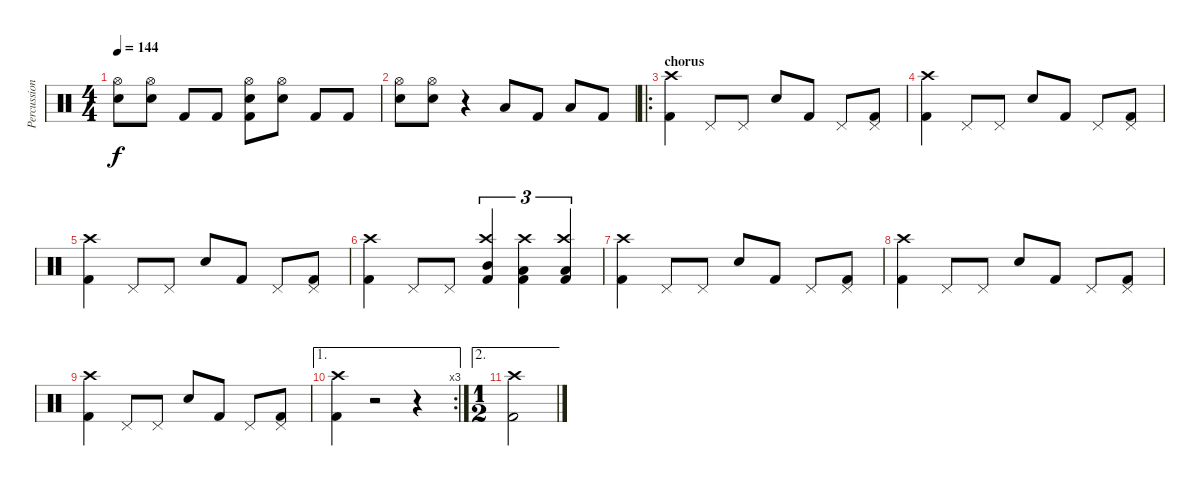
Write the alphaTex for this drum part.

\track ("Percussion" "Percussion") {instrument percussion}
\staff {score}
\articulation defaults
\ts (4 4)
\tempo 144
\clef neutral
\ks c
("Hi-Hat (open)" "Electric Snare (hit)").8{dy f} ("Hi-Hat (open)" "Electric Snare (hit)").8 "Kick (hit) 2".8 "Kick (hit) 2".8 ("Hi-Hat (open)" "Electric Snare (hit)" "Kick (hit) 2").8 ("Hi-Hat (open)" "Electric Snare (hit)").8 "Kick (hit) 2".8 "Kick (hit) 2".8 |
("Hi-Hat (open)" "Electric Snare (hit)").8 ("Hi-Hat (open)" "Electric Snare (hit)").8 r.4 "Low Tom (hit)".8 "Kick (hit) 2".8 "Low Tom (hit)".8 "Kick (hit) 2".8 |
\ro
\section ("" "chorus")
("Crash high (hit)" "Kick (hit) 2").4 "Pedal Hi-Hat (hit)".8 "Pedal Hi-Hat (hit)".8 "Electric Snare (hit)".8 "Kick (hit) 2".8 "Pedal Hi-Hat (hit)".8 ("Pedal Hi-Hat (hit)" "Kick (hit) 2").8 |
("Crash high (hit)" "Kick (hit) 2").4 "Pedal Hi-Hat (hit)".8 "Pedal Hi-Hat (hit)".8 "Electric Snare (hit)".8 "Kick (hit) 2".8 "Pedal Hi-Hat (hit)".8 ("Pedal Hi-Hat (hit)" "Kick (hit) 2").8 |
("Crash high (hit)" "Kick (hit) 2").4 "Pedal Hi-Hat (hit)".8 "Pedal Hi-Hat (hit)".8 "Electric Snare (hit)".8 "Kick (hit) 2".8 "Pedal Hi-Hat (hit)".8 ("Pedal Hi-Hat (hit)" "Kick (hit) 2").8 |
("Crash high (hit)" "Kick (hit) 2").4 "Pedal Hi-Hat (hit)".8 "Pedal Hi-Hat (hit)".8 ("Crash high (hit)" "Mid Tom (hit)" "Kick (hit) 2").4{tu (3 2)} ("Crash high (hit)" "Low Tom (hit)" "Kick (hit) 2").4{tu (3 2)} ("Crash high (hit)" "Low Floor Tom (hit)" "Kick (hit) 2").4{tu (3 2)} |
("Crash high (hit)" "Kick (hit) 2").4 "Pedal Hi-Hat (hit)".8 "Pedal Hi-Hat (hit)".8 "Electric Snare (hit)".8 "Kick (hit) 2".8 "Pedal Hi-Hat (hit)".8 ("Pedal Hi-Hat (hit)" "Kick (hit) 2").8 |
("Crash high (hit)" "Kick (hit) 2").4 "Pedal Hi-Hat (hit)".8 "Pedal Hi-Hat (hit)".8 "Electric Snare (hit)".8 "Kick (hit) 2".8 "Pedal Hi-Hat (hit)".8 ("Pedal Hi-Hat (hit)" "Kick (hit) 2").8 |
("Crash high (hit)" "Kick (hit) 2").4 "Pedal Hi-Hat (hit)".8 "Pedal Hi-Hat (hit)".8 "Electric Snare (hit)".8 "Kick (hit) 2".8 "Pedal Hi-Hat (hit)".8 ("Pedal Hi-Hat (hit)" "Kick (hit) 2").8 |
\ae 1
\rc 3
("Crash high (hit)" "Kick (hit) 2").4 r.2 r.4 |
\ae 2
\ts (1 2)
("Crash high (hit)" "Kick (hit) 2").2
